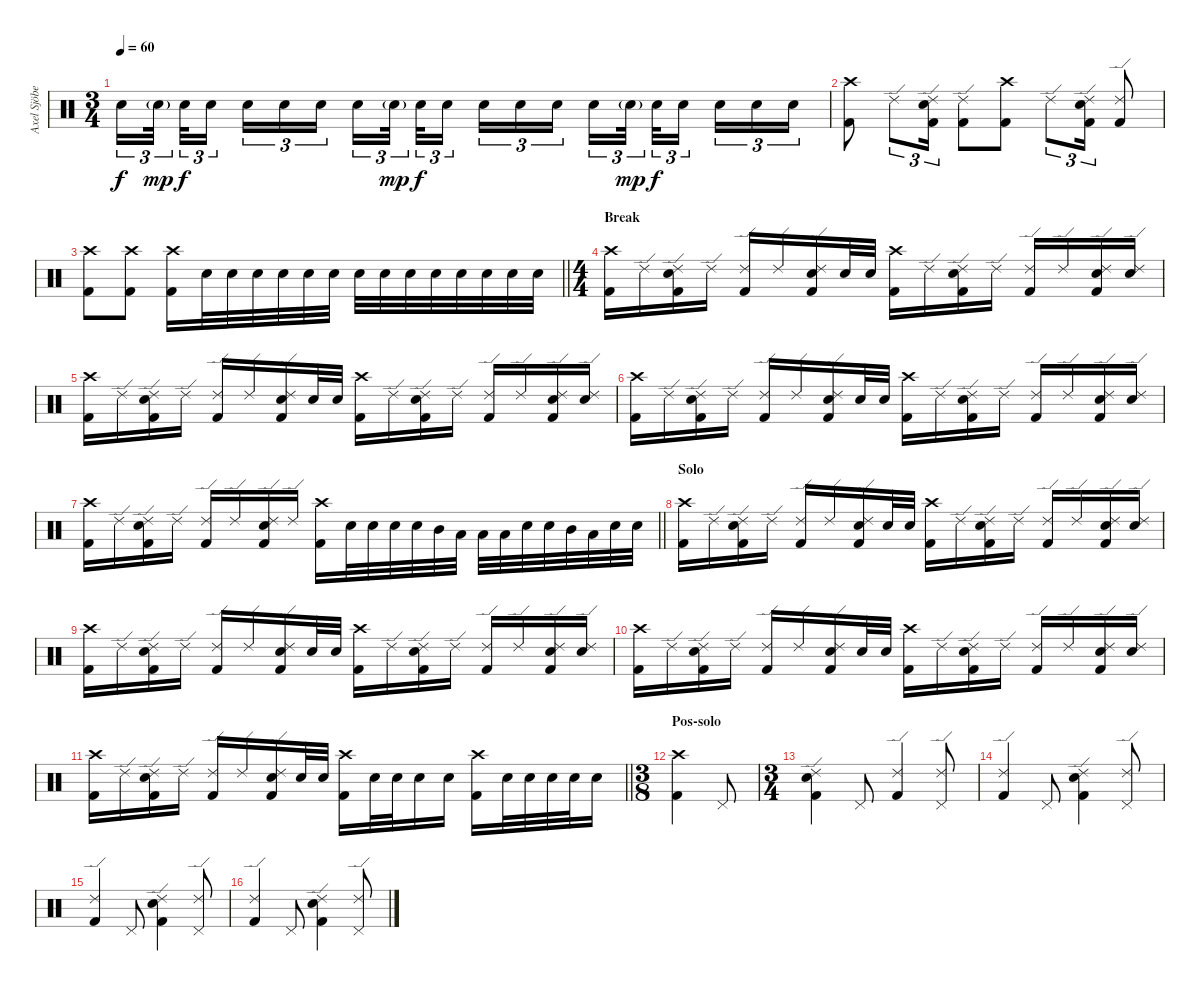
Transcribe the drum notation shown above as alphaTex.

\track ("Axel Sjöberg " "Axel Sjöbe") {instrument percussion}
\staff {score}
\articulation defaults
\ts (3 4)
\tempo 60
\clef neutral
\ks c "Snare (hit) 2".16{tu (3 2) dy f} "Snare (hit) 2"{g}.32{tu (3 2) dy mp beam splitsecondary} "Snare (hit) 2".32{tu (3 2) dy f} "Snare (hit) 2".16{tu (3 2) beam splitsecondary} "Snare (hit) 2".16{tu (3 2)} "Snare (hit) 2".16{tu (3 2)} "Snare (hit) 2".16{tu (3 2)} "Snare (hit) 2".16{tu (3 2)} "Snare (hit) 2"{g}.32{tu (3 2) dy mp beam splitsecondary} "Snare (hit) 2".32{tu (3 2) dy f} "Snare (hit) 2".16{tu (3 2) beam splitsecondary} "Snare (hit) 2".16{tu (3 2)} "Snare (hit) 2".16{tu (3 2)} "Snare (hit) 2".16{tu (3 2)} "Snare (hit) 2".16{tu (3 2)} "Snare (hit) 2"{g}.32{tu (3 2) dy mp beam splitsecondary} "Snare (hit) 2".32{tu (3 2) dy f} "Snare (hit) 2".16{tu (3 2) beam splitsecondary} "Snare (hit) 2".16{tu (3 2)} "Snare (hit) 2".16{tu (3 2)} "Snare (hit) 2".16{tu (3 2)}
|
("Kick (hit) 2" "Crash high (hit)").8 "Ride (edge) 2".8{tu (3 2)} ("Kick (hit) 2" "Snare (hit) 2" "Ride (edge) 2").16{tu (3 2)} ("Kick (hit) 2" "Ride (edge) 2").8 ("Kick (hit) 2" "Crash high (hit)").8 "Ride (edge) 2".8{tu (3 2)} ("Kick (hit) 2" "Snare (hit) 2" "Ride (edge) 2").16{tu (3 2)} ("Kick (hit) 2" "Ride (edge) 2").8 |
\barLineRight lightlight
("Kick (hit) 2" "Crash high (hit)").8 ("Kick (hit) 2" "Crash high (hit)").8 ("Kick (hit) 2" "Crash high (hit)").16 "Snare (hit) 2".32 "Snare (hit) 2".32 "Snare (hit) 2".32 "Snare (hit) 2".32 "Snare (hit) 2".32 "Snare (hit) 2".32 "Snare (hit) 2".32 "Snare (hit) 2".32 "Snare (hit) 2".32 "Snare (hit) 2".32 "Snare (hit) 2".32 "Snare (hit) 2".32 "Snare (hit) 2".32 "Snare (hit) 2".32 |
\ts (4 4)
\section ("" "Break")
("Kick (hit) 2" "Crash high (hit)").16 "Ride (edge) 2".16 ("Kick (hit) 2" "Snare (hit) 2" "Ride (edge) 2").16 "Ride (edge) 2".16 ("Kick (hit) 2" "Ride (edge) 2").16 "Ride (edge) 2".16 ("Kick (hit) 2" "Snare (hit) 2" "Ride (edge) 2").16 "Snare (hit) 2".32 "Snare (hit) 2".32 ("Kick (hit) 2" "Crash high (hit)").16 "Ride (edge) 2".16 ("Kick (hit) 2" "Snare (hit) 2" "Ride (edge) 2").16 "Ride (edge) 2".16 ("Kick (hit) 2" "Ride (edge) 2").16 "Ride (edge) 2".16 ("Kick (hit) 2" "Snare (hit) 2" "Ride (edge) 2").16 ("Snare (hit) 2" "Ride (edge) 2").16 |
("Kick (hit) 2" "Crash high (hit)").16 "Ride (edge) 2".16 ("Kick (hit) 2" "Snare (hit) 2" "Ride (edge) 2").16 "Ride (edge) 2".16 ("Kick (hit) 2" "Ride (edge) 2").16 "Ride (edge) 2".16 ("Kick (hit) 2" "Snare (hit) 2" "Ride (edge) 2").16 "Snare (hit) 2".32 "Snare (hit) 2".32 ("Kick (hit) 2" "Crash high (hit)").16 "Ride (edge) 2".16 ("Kick (hit) 2" "Snare (hit) 2" "Ride (edge) 2").16 "Ride (edge) 2".16 ("Kick (hit) 2" "Ride (edge) 2").16 "Ride (edge) 2".16 ("Kick (hit) 2" "Snare (hit) 2" "Ride (edge) 2").16 ("Snare (hit) 2" "Ride (edge) 2").16 |
("Kick (hit) 2" "Crash high (hit)").16 "Ride (edge) 2".16 ("Kick (hit) 2" "Snare (hit) 2" "Ride (edge) 2").16 "Ride (edge) 2".16 ("Kick (hit) 2" "Ride (edge) 2").16 "Ride (edge) 2".16 ("Kick (hit) 2" "Snare (hit) 2" "Ride (edge) 2").16 "Snare (hit) 2".32 "Snare (hit) 2".32 ("Kick (hit) 2" "Crash high (hit)").16 "Ride (edge) 2".16 ("Kick (hit) 2" "Snare (hit) 2" "Ride (edge) 2").16 "Ride (edge) 2".16 ("Kick (hit) 2" "Ride (edge) 2").16 "Ride (edge) 2".16 ("Kick (hit) 2" "Snare (hit) 2" "Ride (edge) 2").16 ("Snare (hit) 2" "Ride (edge) 2").16 |
\barLineRight lightlight
("Kick (hit) 2" "Crash high (hit)").16 "Ride (edge) 2".16 ("Kick (hit) 2" "Snare (hit) 2" "Ride (edge) 2").16 "Ride (edge) 2".16 ("Kick (hit) 2" "Ride (edge) 2").16 "Ride (edge) 2".16 ("Kick (hit) 2" "Snare (hit) 2" "Ride (edge) 2").16 "Ride (edge) 2".16 ("Kick (hit) 2" "Crash high (hit)").16 "Snare (hit) 2".32 "Snare (hit) 2".32 "Snare (hit) 2".32 "Snare (hit) 2".32 "Mid Tom (hit)".32 "Low Tom (hit)".32 "Low Tom (hit)".32 "Low Tom (hit)".32 "Snare (hit) 2".32 "Snare (hit) 2".32 "Mid Tom (hit)".32 "Low Tom (hit)".32 "Snare (hit) 2".32 "Snare (hit) 2".32 |
\section ("" "Solo")
("Kick (hit) 2" "Crash high (hit)").16 "Ride (edge) 2".16 ("Kick (hit) 2" "Snare (hit) 2" "Ride (edge) 2").16 "Ride (edge) 2".16 ("Kick (hit) 2" "Ride (edge) 2").16 "Ride (edge) 2".16 ("Kick (hit) 2" "Snare (hit) 2" "Ride (edge) 2").16 "Snare (hit) 2".32 "Snare (hit) 2".32 ("Kick (hit) 2" "Crash high (hit)").16 "Ride (edge) 2".16 ("Kick (hit) 2" "Snare (hit) 2" "Ride (edge) 2").16 "Ride (edge) 2".16 ("Kick (hit) 2" "Ride (edge) 2").16 "Ride (edge) 2".16 ("Kick (hit) 2" "Snare (hit) 2" "Ride (edge) 2").16 ("Snare (hit) 2" "Ride (edge) 2").16 |
("Kick (hit) 2" "Crash high (hit)").16 "Ride (edge) 2".16 ("Kick (hit) 2" "Snare (hit) 2" "Ride (edge) 2").16 "Ride (edge) 2".16 ("Kick (hit) 2" "Ride (edge) 2").16 "Ride (edge) 2".16 ("Kick (hit) 2" "Snare (hit) 2" "Ride (edge) 2").16 "Snare (hit) 2".32 "Snare (hit) 2".32 ("Kick (hit) 2" "Crash high (hit)").16 "Ride (edge) 2".16 ("Kick (hit) 2" "Snare (hit) 2" "Ride (edge) 2").16 "Ride (edge) 2".16 ("Kick (hit) 2" "Ride (edge) 2").16 "Ride (edge) 2".16 ("Kick (hit) 2" "Snare (hit) 2" "Ride (edge) 2").16 ("Snare (hit) 2" "Ride (edge) 2").16 |
("Kick (hit) 2" "Crash high (hit)").16 "Ride (edge) 2".16 ("Kick (hit) 2" "Snare (hit) 2" "Ride (edge) 2").16 "Ride (edge) 2".16 ("Kick (hit) 2" "Ride (edge) 2").16 "Ride (edge) 2".16 ("Kick (hit) 2" "Snare (hit) 2" "Ride (edge) 2").16 "Snare (hit) 2".32 "Snare (hit) 2".32 ("Kick (hit) 2" "Crash high (hit)").16 "Ride (edge) 2".16 ("Kick (hit) 2" "Snare (hit) 2" "Ride (edge) 2").16 "Ride (edge) 2".16 ("Kick (hit) 2" "Ride (edge) 2").16 "Ride (edge) 2".16 ("Kick (hit) 2" "Snare (hit) 2" "Ride (edge) 2").16 ("Snare (hit) 2" "Ride (edge) 2").16 |
\barLineRight lightlight
("Kick (hit) 2" "Crash high (hit)").16 "Ride (edge) 2".16 ("Kick (hit) 2" "Snare (hit) 2" "Ride (edge) 2").16 "Ride (edge) 2".16 ("Kick (hit) 2" "Ride (edge) 2").16 "Ride (edge) 2".16 ("Kick (hit) 2" "Snare (hit) 2" "Ride (edge) 2").16 "Snare (hit) 2".32 "Snare (hit) 2".32 ("Kick (hit) 2" "Crash high (hit)").16 "Snare (hit) 2".32 "Snare (hit) 2".32 "Snare (hit) 2".16 "Snare (hit) 2".16 ("Kick (hit) 2" "Crash high (hit)").16 "Snare (hit) 2".32 "Snare (hit) 2".32 "Snare (hit) 2".32 "Snare (hit) 2".32 "Snare (hit) 2".16 |
\ts (3 8)
\section ("" "Pos-solo")
("Kick (hit) 2" "Crash high (hit)").4 "Pedal Hi-Hat (hit)".8 |
\ts (3 4)
("Kick (hit) 2" "Snare (hit) 2" "Ride (edge) 2").4 "Pedal Hi-Hat (hit)".8 ("Kick (hit) 2" "Ride (edge) 2").4 ("Ride (edge) 2" "Pedal Hi-Hat (hit)").8 |
("Kick (hit) 2" "Ride (edge) 2").4 "Pedal Hi-Hat (hit)".8 ("Kick (hit) 2" "Snare (hit) 2" "Ride (edge) 2").4 ("Ride (edge) 2" "Pedal Hi-Hat (hit)").8 |
("Kick (hit) 2" "Ride (edge) 2").4 "Pedal Hi-Hat (hit)".8 ("Kick (hit) 2" "Snare (hit) 2" "Ride (edge) 2").4 ("Ride (edge) 2" "Pedal Hi-Hat (hit)").8 |
("Kick (hit) 2" "Ride (edge) 2").4 "Pedal Hi-Hat (hit)".8 ("Kick (hit) 2" "Snare (hit) 2" "Ride (edge) 2").4 ("Ride (edge) 2" "Pedal Hi-Hat (hit)").8
